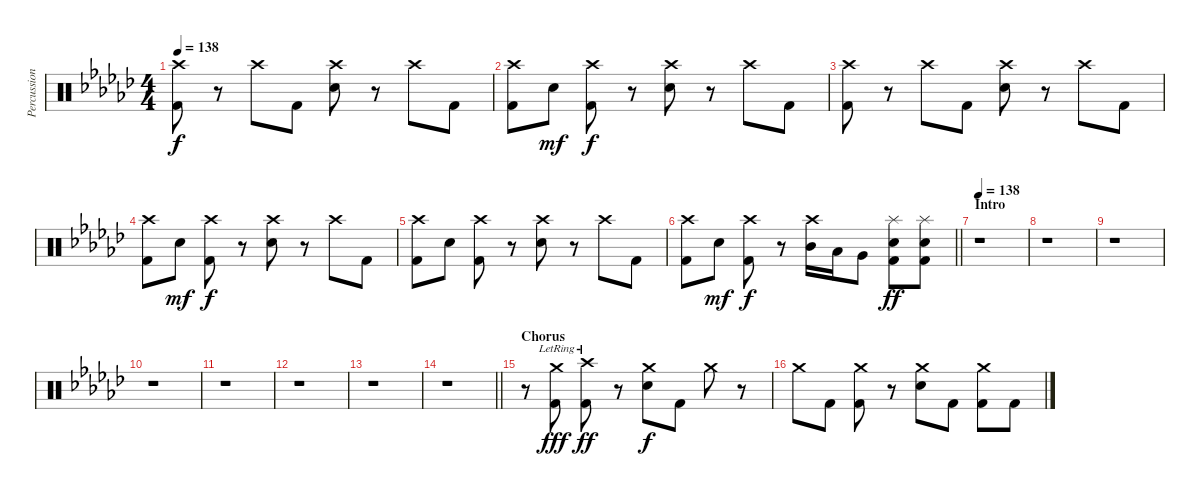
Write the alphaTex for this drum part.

\track ("Percussion" "Percussion") {instrument percussion}
\staff {score}
\articulation defaults
\ts (4 4)
\tempo 138
\clef neutral
\ks gb
("Crash high (hit)" "Kick (hit) 2").8{dy f} r.8 "Crash high (hit)".8 "Kick (hit) 2".8 ("Crash high (hit)" "Electric Snare (hit)").8 r.8 "Crash high (hit)".8 "Kick (hit) 2".8 |
("Crash high (hit)" "Kick (hit) 2").8 "Electric Snare (hit)".8{dy mf} ("Crash high (hit)" "Kick (hit) 2").8{dy f} r.8 ("Crash high (hit)" "Electric Snare (hit)").8 r.8 "Crash high (hit)".8 "Kick (hit) 2".8 |
("Crash high (hit)" "Kick (hit) 2").8 r.8 "Crash high (hit)".8 "Kick (hit) 2".8 ("Crash high (hit)" "Electric Snare (hit)").8 r.8 "Crash high (hit)".8 "Kick (hit) 2".8 |
("Crash high (hit)" "Kick (hit) 2").8 "Electric Snare (hit)".8{dy mf} ("Crash high (hit)" "Kick (hit) 2").8{dy f} r.8 ("Crash high (hit)" "Electric Snare (hit)").8 r.8 "Crash high (hit)".8 "Kick (hit) 2".8 |
("Crash high (hit)" "Kick (hit) 2").8 "Electric Snare (hit)".8 ("Crash high (hit)" "Kick (hit) 2").8 r.8 ("Crash high (hit)" "Electric Snare (hit)").8 r.8 "Crash high (hit)".8 "Kick (hit) 2".8 |
\barLineRight lightlight
("Crash high (hit)" "Kick (hit) 2").8 "Electric Snare (hit)".8{dy mf} ("Crash high (hit)" "Kick (hit) 2").8{dy f} r.8 ("Crash high (hit)" "Mid Tom (hit)").16 "Low Tom (hit)".16 "Very Low Tom (hit)".8 ("Splash (hit)" "Electric Snare (hit)" "Kick (hit) 2").8{dy ff} ("Splash (hit)" "Electric Snare (hit)" "Kick (hit) 2").8 |
\section ("" "Intro")
\tempo 138
r.1 |
r.1 |
r.1 |
r.1 |
r.1 |
r.1 |
r.1 |
\barLineRight lightlight
r.1 |
\section ("" "Chorus")
r.8 ("Crash medium (hit)"{lr} "Kick (hit) 2").8{dy fff} ("Crash high (hit)"{lr} "Kick (hit) 2").8{dy ff} r.8 ("Crash medium (hit)" "Electric Snare (hit)").8{dy f} "Kick (hit) 2".8 "Crash medium (hit)".8 r.8 |
"Crash medium (hit)".8 "Kick (hit) 2".8 ("Crash medium (hit)" "Kick (hit) 2").8 r.8 ("Crash medium (hit)" "Electric Snare (hit)").8 "Kick (hit) 2".8 ("Crash medium (hit)" "Kick (hit) 2").8 "Kick (hit) 2".8
